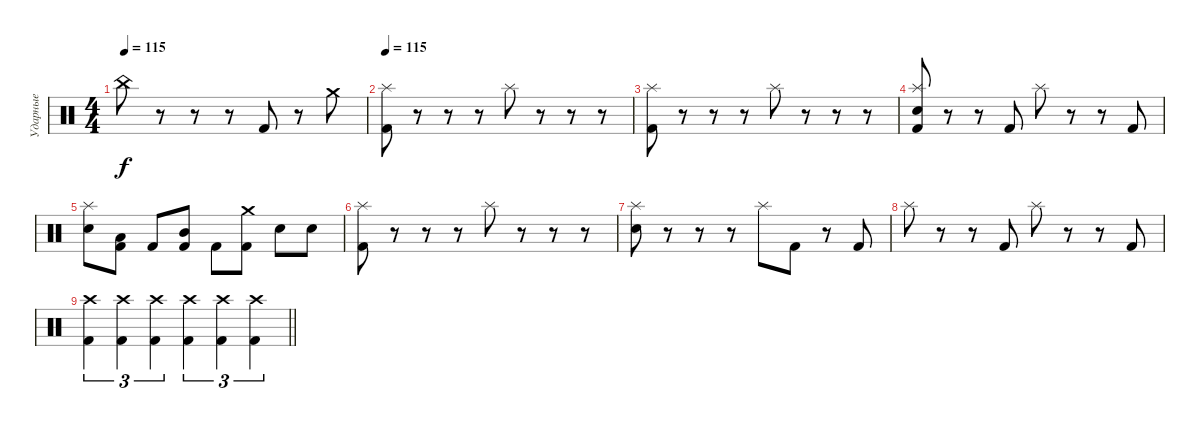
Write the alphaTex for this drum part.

\track ("Ударные" "Ударные") {instrument percussion}
\staff {score}
\articulation defaults
\ts (4 4)
\tempo 125
\tempo 115
\clef neutral
\ks c "China (hit)".8{dy f}
r.8 r.8 r.8 "Kick (hit) 2".8 r.8 "Crash medium (hit)".8 |
\tempo 115
("Kick (hit) 2" "Splash (hit)").8 r.8 r.8 r.8 "Splash (hit)".8 r.8 r.8 r.8 |
("Kick (hit) 2" "Splash (hit)").8 r.8 r.8 r.8 "Splash (hit)".8 r.8 r.8 r.8 |
("Kick (hit) 2" "Electric Snare (hit)" "Splash (hit)").8 r.8 r.8 "Kick (hit) 2".8 "Splash (hit)".8 r.8 r.8 "Kick (hit) 2".8 |
("Electric Snare (hit)" "Splash (hit)").8 ("Kick (hit) 2" "Low Tom (hit)").8 "Kick (hit) 2".8 ("Kick (hit) 2" "Mid Tom (hit)").8 "Kick (hit) 2".8 ("Kick (hit) 2" "Crash medium (hit)").8 "Electric Snare (hit)".8 "Electric Snare (hit)".8 |
("Kick (hit) 2" "Splash (hit)").8 r.8 r.8 r.8 "Splash (hit)".8 r.8 r.8 r.8 |
("Electric Snare (hit)" "Splash (hit)").8 r.8 r.8 r.8 "Splash (hit)".8 "Kick (hit) 2".8 r.8 "Kick (hit) 2".8 |
"Splash (hit)".8 r.8 r.8 "Kick (hit) 2".8 "Splash (hit)".8 r.8 r.8 "Kick (hit) 2".8 |
\barLineRight lightlight
("Kick (hit) 2" "Crash high (hit)").4{tu (3 2)} ("Kick (hit) 2" "Crash high (hit)").4{tu (3 2)} ("Kick (hit) 2" "Crash high (hit)").4{tu (3 2)} ("Kick (hit) 2" "Crash high (hit)").4{tu (3 2)} ("Kick (hit) 2" "Crash high (hit)").4{tu (3 2)} ("Kick (hit) 2" "Crash high (hit)").4{tu (3 2)}
